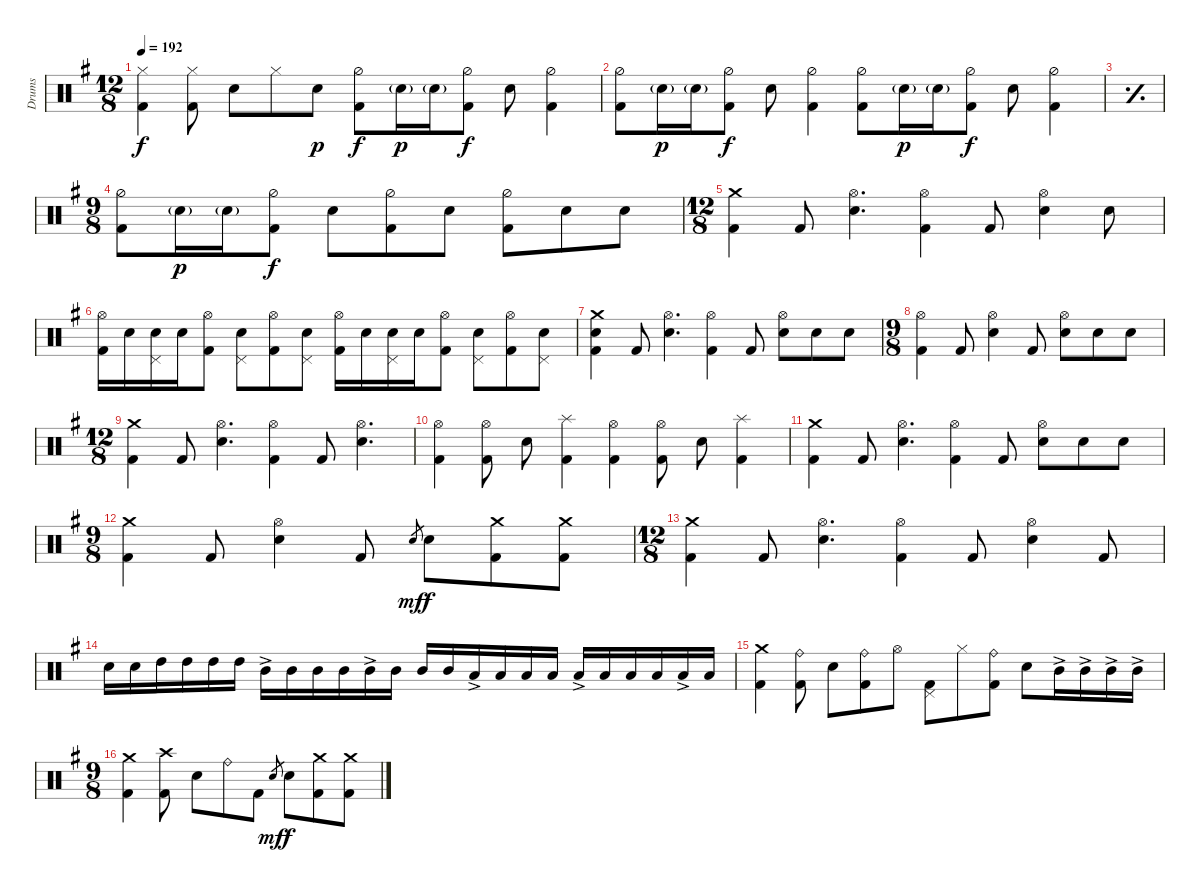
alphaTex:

\defaultSystemsLayout 4
\bracketExtendMode groupsimilarinstruments
\otherSystemsTrackNameOrientation horizontal
\track ("Drumkit" "Drums") {multiBarRest instrument percussion}
\staff {score}
\articulation defaults
\ts (12 8)
\beaming (8 3 3 3 3)
\tempo 192
\clef neutral
\ks g
("Hi-Hat (closed)"{acc forcenatural} "Kick (hit) 2"{acc forcenatural}).4{dy f} ("Hi-Hat (closed)"{acc forcenatural} "Kick (hit) 2"{acc forcenatural}).8 "Snare (hit) 2"{acc forcenatural}.8 "Hi-Hat (closed)"{acc forcenatural}.8 "Snare (hit) 2"{acc forcenatural}.8{dy p} ("Hi-Hat (half)"{acc forcenatural} "Kick (hit) 2"{acc forcenatural}).8{dy f} "Snare (hit) 2"{g acc forcenatural}.16{dy p} "Snare (hit) 2"{g acc forcenatural}.16 ("Hi-Hat (half)"{acc forcenatural} "Kick (hit) 2"{acc forcenatural}).8{dy f} "Snare (hit) 2"{acc forcenatural}.8 ("Hi-Hat (half)"{acc forcenatural} "Kick (hit) 2"{acc forcenatural}).4 |
("Hi-Hat (half)"{acc forcenatural} "Kick (hit) 2"{acc forcenatural}).8 "Snare (hit) 2"{g acc forcenatural}.16{dy p} "Snare (hit) 2"{g acc forcenatural}.16 ("Hi-Hat (half)"{acc forcenatural} "Kick (hit) 2"{acc forcenatural}).8{dy f} "Snare (hit) 2"{acc forcenatural}.8 ("Hi-Hat (half)"{acc forcenatural} "Kick (hit) 2"{acc forcenatural}).4 ("Hi-Hat (half)"{acc forcenatural} "Kick (hit) 2"{acc forcenatural}).8 "Snare (hit) 2"{g acc forcenatural}.16{dy p} "Snare (hit) 2"{g acc forcenatural}.16 ("Hi-Hat (half)"{acc forcenatural} "Kick (hit) 2"{acc forcenatural}).8{dy f} "Snare (hit) 2"{acc forcenatural}.8 ("Hi-Hat (half)"{acc forcenatural} "Kick (hit) 2"{acc forcenatural}).4 |
\simile simple
|
\ts (9 8)
\beaming (8 3 3 3 3)
\simile none
("Hi-Hat (half)"{acc forcenatural} "Kick (hit) 2"{acc forcenatural}).8 "Snare (hit) 2"{g acc forcenatural}.16{dy p} "Snare (hit) 2"{g acc forcenatural}.16 ("Hi-Hat (half)"{acc forcenatural} "Kick (hit) 2"{acc forcenatural}).8{dy f} "Snare (hit) 2"{acc forcenatural}.8 ("Hi-Hat (half)"{acc forcenatural} "Kick (hit) 2"{acc forcenatural}).8 "Snare (hit) 2"{acc forcenatural}.8 ("Hi-Hat (half)"{acc forcenatural} "Kick (hit) 2"{acc forcenatural}).8 "Snare (hit) 2"{acc forcenatural}.8 "Snare (hit) 2"{acc forcenatural}.8 |
\ts (12 8)
\beaming (8 3 3 3 3)
("Crash medium (hit)"{acc forcenatural} "Kick (hit) 2"{acc forcenatural}).4 "Kick (hit) 2"{acc forcenatural}.8 ("Hi-Hat (open)"{acc forcenatural} "Snare (hit) 2"{acc forcenatural}).4{d} ("Hi-Hat (open)"{acc forcenatural} "Kick (hit) 2"{acc forcenatural}).4 "Kick (hit) 2"{acc forcenatural}.8 ("Hi-Hat (open)"{acc forcenatural} "Snare (hit) 2"{acc forcenatural}).4 "Snare (hit) 2"{acc forcenatural}.8 |
("Kick (hit) 2"{acc forcenatural} "Hi-Hat (open)"{acc forcenatural}).16 "Snare (hit) 2"{acc forcenatural}.16 ("Snare (hit) 2"{acc forcenatural} "Pedal Hi-Hat (hit)"{acc forcenatural}).16 "Snare (hit) 2"{acc forcenatural}.16 ("Hi-Hat (open)"{acc forcenatural} "Kick (hit) 2"{acc forcenatural}).8 ("Snare (hit) 2"{acc forcenatural} "Pedal Hi-Hat (hit)"{acc forcenatural}).8 ("Hi-Hat (open)"{acc forcenatural} "Kick (hit) 2"{acc forcenatural}).8 ("Snare (hit) 2"{acc forcenatural} "Pedal Hi-Hat (hit)"{acc forcenatural}).8 ("Kick (hit) 2"{acc forcenatural} "Hi-Hat (open)"{acc forcenatural}).16 "Snare (hit) 2"{acc forcenatural}.16 ("Snare (hit) 2"{acc forcenatural} "Pedal Hi-Hat (hit)"{acc forcenatural}).16 "Snare (hit) 2"{acc forcenatural}.16 ("Hi-Hat (open)"{acc forcenatural} "Kick (hit) 2"{acc forcenatural}).8 ("Snare (hit) 2"{acc forcenatural} "Pedal Hi-Hat (hit)"{acc forcenatural}).8 ("Hi-Hat (open)"{acc forcenatural} "Kick (hit) 2"{acc forcenatural}).8 ("Snare (hit) 2"{acc forcenatural} "Pedal Hi-Hat (hit)"{acc forcenatural}).8 |
("Crash medium (hit)"{acc forcenatural} "Snare (hit) 2"{acc forcenatural} "Kick (hit) 2"{acc forcenatural}).4 "Kick (hit) 2"{acc forcenatural}.8 ("Hi-Hat (open)"{acc forcenatural} "Snare (hit) 2"{acc forcenatural}).4{d} ("Hi-Hat (open)"{acc forcenatural} "Kick (hit) 2"{acc forcenatural}).4 "Kick (hit) 2"{acc forcenatural}.8 ("Hi-Hat (open)"{acc forcenatural} "Snare (hit) 2"{acc forcenatural}).8 "Snare (hit) 2"{acc forcenatural}.8 "Snare (hit) 2"{acc forcenatural}.8 |
\ts (9 8)
\beaming (8 3 3 3 3)
("Hi-Hat (open)"{acc forcenatural} "Kick (hit) 2"{acc forcenatural}).4 "Kick (hit) 2"{acc forcenatural}.8 ("Hi-Hat (open)"{acc forcenatural} "Snare (hit) 2"{acc forcenatural}).4 "Kick (hit) 2"{acc forcenatural}.8 ("Hi-Hat (open)"{acc forcenatural} "Snare (hit) 2"{acc forcenatural}).8 "Snare (hit) 2"{acc forcenatural}.8 "Snare (hit) 2"{acc forcenatural}.8 |
\ts (12 8)
\beaming (8 3 3 3 3)
("Crash medium (hit)"{acc forcenatural} "Kick (hit) 2"{acc forcenatural}).4 "Kick (hit) 2"{acc forcenatural}.8 ("Hi-Hat (open)"{acc forcenatural} "Snare (hit) 2"{acc forcenatural}).4{d} ("Hi-Hat (open)"{acc forcenatural} "Kick (hit) 2"{acc forcenatural}).4 "Kick (hit) 2"{acc forcenatural}.8 ("Hi-Hat (open)"{acc forcenatural} "Snare (hit) 2"{acc forcenatural}).4{d} |
("Hi-Hat (open)"{acc forcenatural} "Kick (hit) 2"{acc forcenatural}).4 ("Hi-Hat (open)"{acc forcenatural} "Kick (hit) 2"{acc forcenatural}).8 "Snare (hit) 2"{acc forcenatural}.8 ("Splash (hit)"{acc forcenatural} "Kick (hit) 2"{acc forcenatural}).4 ("Hi-Hat (open)"{acc forcenatural} "Kick (hit) 2"{acc forcenatural}).4 ("Hi-Hat (open)"{acc forcenatural} "Kick (hit) 2"{acc forcenatural}).8 "Snare (hit) 2"{acc forcenatural}.8 ("Splash (hit)"{acc forcenatural} "Kick (hit) 2"{acc forcenatural}).4 |
("Crash medium (hit)"{acc forcenatural} "Kick (hit) 2"{acc forcenatural}).4 "Kick (hit) 2"{acc forcenatural}.8 ("Hi-Hat (open)"{acc forcenatural} "Snare (hit) 2"{acc forcenatural}).4{d} ("Hi-Hat (open)"{acc forcenatural} "Kick (hit) 2"{acc forcenatural}).4 "Kick (hit) 2"{acc forcenatural}.8 ("Hi-Hat (open)"{acc forcenatural} "Snare (hit) 2"{acc forcenatural}).8 "Snare (hit) 2"{acc forcenatural}.8 "Snare (hit) 2"{acc forcenatural}.8 |
\ts (9 8)
\beaming (8 3 3 3 3)
("Crash medium (hit)"{acc forcenatural} "Kick (hit) 2"{acc forcenatural}).4 "Kick (hit) 2"{acc forcenatural}.8 ("Hi-Hat (open)"{acc forcenatural} "Snare (hit) 2"{acc forcenatural}).4 "Kick (hit) 2"{acc forcenatural}.8 "Snare (hit) 2"{acc forcenatural}.8{gr dy mf} "Snare (hit) 2"{acc forcenatural}.8{dy f} ("Crash medium (hit)"{acc forcenatural} "Kick (hit) 2"{acc forcenatural}).8 ("Crash medium (hit)"{acc forcenatural} "Kick (hit) 2"{acc forcenatural}).8 |
\ts (12 8)
\beaming (8 3 3 3 3)
("Crash medium (hit)"{acc forcenatural} "Kick (hit) 2"{acc forcenatural}).4 "Kick (hit) 2"{acc forcenatural}.8 ("Hi-Hat (open)"{acc forcenatural} "Snare (hit) 2"{acc forcenatural}).4{d} ("Hi-Hat (open)"{acc forcenatural} "Kick (hit) 2"{acc forcenatural}).4 "Kick (hit) 2"{acc forcenatural}.8 ("Hi-Hat (open)"{acc forcenatural} "Snare (hit) 2"{acc forcenatural}).4 "Kick (hit) 2"{acc forcenatural}.8 |
"Snare (hit) 2"{acc forcenatural}.16 "Snare (hit) 2"{acc forcenatural}.16 "High Tom (hit)"{acc forcenatural}.16 "High Tom (hit)"{acc forcenatural}.16 "High Tom (hit)"{acc forcenatural}.16 "High Tom (hit)"{acc forcenatural}.16 "Mid Tom (hit)"{ac acc forcenatural}.16 "Mid Tom (hit)"{acc forcenatural}.16 "Mid Tom (hit)"{acc forcenatural}.16 "Mid Tom (hit)"{acc forcenatural}.16 "Mid Tom (hit)"{ac acc forcenatural}.16 "Mid Tom (hit)"{acc forcenatural}.16 "Mid Tom (hit)"{acc forcenatural}.16 "Mid Tom (hit)"{acc forcenatural}.16 "Low Tom (hit)"{ac acc forcenatural}.16 "Low Tom (hit)"{acc forcenatural}.16 "Low Tom (hit)"{acc forcenatural}.16 "Low Tom (hit)"{acc forcenatural}.16 "Low Tom (hit)"{ac acc forcenatural}.16 "Low Tom (hit)"{acc forcenatural}.16 "Low Tom (hit)"{acc forcenatural}.16 "Low Tom (hit)"{acc forcenatural}.16 "Low Tom (hit)"{ac acc forcenatural}.16 "Low Tom (hit)"{acc forcenatural}.16 |
("Crash medium (hit)"{acc forcenatural} "Kick (hit) 2"{acc forcenatural}).4 ("Ride (bell)"{acc forcenatural} "Kick (hit) 2"{acc forcenatural}).8 "Snare (hit) 2"{acc forcenatural}.8 ("Ride (bell)"{acc forcenatural} "Kick (hit) 2"{acc forcenatural}).8 "Hi-Hat (open)"{acc forcenatural}.8 ("Pedal Hi-Hat (hit)"{acc forcenatural} "Kick (hit) 2"{acc forcenatural}).8 "Hi-Hat (closed)"{acc forcenatural}.8 ("Ride (bell)"{acc forcenatural} "Kick (hit) 2"{acc forcenatural}).8 "Snare (hit) 2"{acc forcenatural}.8 "Mid Tom (hit)"{ac acc forcenatural}.16 "Mid Tom (hit)"{ac acc forcenatural}.16 "Mid Tom (hit)"{ac acc forcenatural}.16 "Mid Tom (hit)"{ac acc forcenatural}.16 |
\ts (9 8)
\beaming (8 3 3 3 3)
("Crash medium (hit)"{acc forcenatural} "Kick (hit) 2"{acc forcenatural}).4 ("Kick (hit) 2"{acc forcenatural} "Crash high (hit)"{acc forcenatural}).8 "Snare (hit) 2"{acc forcenatural}.8 "Ride (bell)"{acc forcenatural}.8 "Kick (hit) 2"{acc forcenatural}.8 "Snare (hit) 2"{acc forcenatural}.8{gr dy mf} "Snare (hit) 2"{acc forcenatural}.8{dy f} ("Crash medium (hit)"{acc forcenatural} "Kick (hit) 2"{acc forcenatural}).8 ("Crash medium (hit)"{acc forcenatural} "Kick (hit) 2"{acc forcenatural}).8
